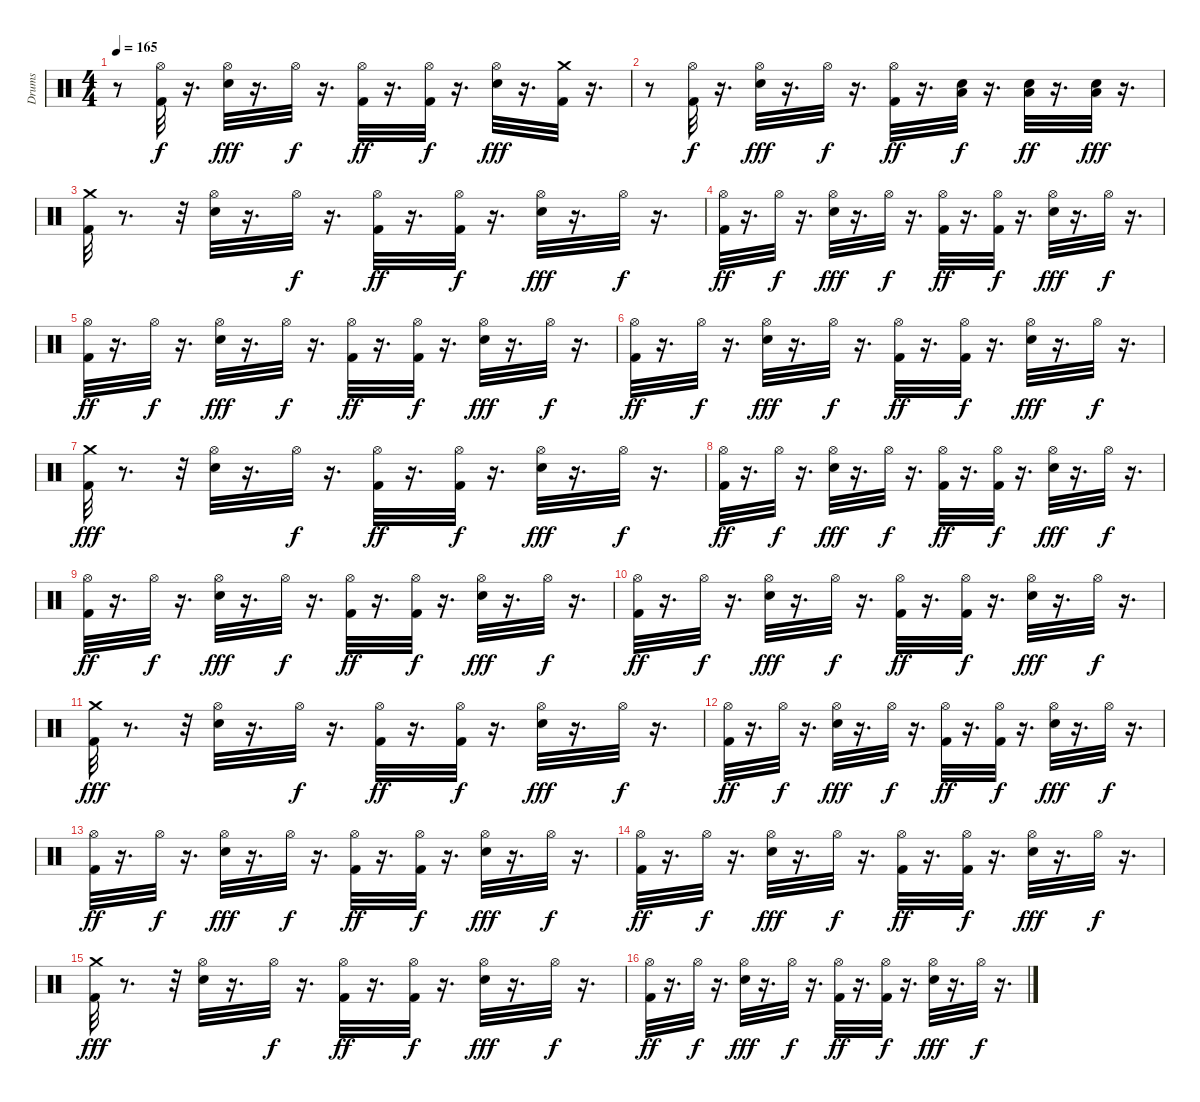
\track ("Drums" "Drums") {instrument percussion}
\staff {score}
\articulation defaults
\ts (4 4)
\tempo 165
\clef neutral
\ks c
r.8{dy fff} ("Kick (hit) 2" "Hi-Hat (open)").32{dy f} r.16{d} ("Snare (hit) 2" "Hi-Hat (open)").32{dy fff} r.16{d} "Hi-Hat (open)".32{dy f} r.16{d} ("Kick (hit) 2" "Hi-Hat (open)").32{dy ff} r.16{d} ("Kick (hit) 2" "Hi-Hat (open)").32{dy f} r.16{d} ("Snare (hit) 2" "Hi-Hat (open)").32{dy fff} r.16{d} ("Kick (hit) 2" "Crash medium (hit)").32 r.16{d} |
r.8 ("Kick (hit) 2" "Hi-Hat (open)").32{dy f} r.16{d} ("Snare (hit) 2" "Hi-Hat (open)").32{dy fff} r.16{d} "Hi-Hat (open)".32{dy f} r.16{d} ("Kick (hit) 2" "Hi-Hat (open)").32{dy ff} r.16{d} ("Low Floor Tom (hit)" "Snare (hit) 2").32{dy f} r.16{d} ("Low Floor Tom (hit)" "Snare (hit) 2").32{dy ff} r.16{d} ("Low Floor Tom (hit)" "Snare (hit) 2").32{dy fff} r.16{d} |
("Kick (hit) 2" "Crash medium (hit)").32 r.8{d} r.32 ("Snare (hit) 2" "Hi-Hat (open)").32 r.16{d} "Hi-Hat (open)".32{dy f} r.16{d} ("Kick (hit) 2" "Hi-Hat (open)").32{dy ff} r.16{d} ("Kick (hit) 2" "Hi-Hat (open)").32{dy f} r.16{d} ("Snare (hit) 2" "Hi-Hat (open)").32{dy fff} r.16{d} "Hi-Hat (open)".32{dy f} r.16{d} |
("Kick (hit) 2" "Hi-Hat (open)").32{dy ff} r.16{d} "Hi-Hat (open)".32{dy f} r.16{d} ("Snare (hit) 2" "Hi-Hat (open)").32{dy fff} r.16{d} "Hi-Hat (open)".32{dy f} r.16{d} ("Kick (hit) 2" "Hi-Hat (open)").32{dy ff} r.16{d} ("Kick (hit) 2" "Hi-Hat (open)").32{dy f} r.16{d} ("Snare (hit) 2" "Hi-Hat (open)").32{dy fff} r.16{d} "Hi-Hat (open)".32{dy f} r.16{d} |
("Kick (hit) 2" "Hi-Hat (open)").32{dy ff} r.16{d} "Hi-Hat (open)".32{dy f} r.16{d} ("Snare (hit) 2" "Hi-Hat (open)").32{dy fff} r.16{d} "Hi-Hat (open)".32{dy f} r.16{d} ("Kick (hit) 2" "Hi-Hat (open)").32{dy ff} r.16{d} ("Kick (hit) 2" "Hi-Hat (open)").32{dy f} r.16{d} ("Snare (hit) 2" "Hi-Hat (open)").32{dy fff} r.16{d} "Hi-Hat (open)".32{dy f} r.16{d} |
("Kick (hit) 2" "Hi-Hat (open)").32{dy ff} r.16{d} "Hi-Hat (open)".32{dy f} r.16{d} ("Snare (hit) 2" "Hi-Hat (open)").32{dy fff} r.16{d} "Hi-Hat (open)".32{dy f} r.16{d} ("Kick (hit) 2" "Hi-Hat (open)").32{dy ff} r.16{d} ("Kick (hit) 2" "Hi-Hat (open)").32{dy f} r.16{d} ("Snare (hit) 2" "Hi-Hat (open)").32{dy fff} r.16{d} "Hi-Hat (open)".32{dy f} r.16{d} |
("Kick (hit) 2" "Crash medium (hit)").32{dy fff} r.8{d} r.32 ("Snare (hit) 2" "Hi-Hat (open)").32 r.16{d} "Hi-Hat (open)".32{dy f} r.16{d} ("Kick (hit) 2" "Hi-Hat (open)").32{dy ff} r.16{d} ("Kick (hit) 2" "Hi-Hat (open)").32{dy f} r.16{d} ("Snare (hit) 2" "Hi-Hat (open)").32{dy fff} r.16{d} "Hi-Hat (open)".32{dy f} r.16{d} |
("Kick (hit) 2" "Hi-Hat (open)").32{dy ff} r.16{d} "Hi-Hat (open)".32{dy f} r.16{d} ("Snare (hit) 2" "Hi-Hat (open)").32{dy fff} r.16{d} "Hi-Hat (open)".32{dy f} r.16{d} ("Kick (hit) 2" "Hi-Hat (open)").32{dy ff} r.16{d} ("Kick (hit) 2" "Hi-Hat (open)").32{dy f} r.16{d} ("Snare (hit) 2" "Hi-Hat (open)").32{dy fff} r.16{d} "Hi-Hat (open)".32{dy f} r.16{d} |
("Kick (hit) 2" "Hi-Hat (open)").32{dy ff} r.16{d} "Hi-Hat (open)".32{dy f} r.16{d} ("Snare (hit) 2" "Hi-Hat (open)").32{dy fff} r.16{d} "Hi-Hat (open)".32{dy f} r.16{d} ("Kick (hit) 2" "Hi-Hat (open)").32{dy ff} r.16{d} ("Kick (hit) 2" "Hi-Hat (open)").32{dy f} r.16{d} ("Snare (hit) 2" "Hi-Hat (open)").32{dy fff} r.16{d} "Hi-Hat (open)".32{dy f} r.16{d} |
("Kick (hit) 2" "Hi-Hat (open)").32{dy ff} r.16{d} "Hi-Hat (open)".32{dy f} r.16{d} ("Snare (hit) 2" "Hi-Hat (open)").32{dy fff} r.16{d} "Hi-Hat (open)".32{dy f} r.16{d} ("Kick (hit) 2" "Hi-Hat (open)").32{dy ff} r.16{d} ("Kick (hit) 2" "Hi-Hat (open)").32{dy f} r.16{d} ("Snare (hit) 2" "Hi-Hat (open)").32{dy fff} r.16{d} "Hi-Hat (open)".32{dy f} r.16{d} |
("Kick (hit) 2" "Crash medium (hit)").32{dy fff} r.8{d} r.32 ("Snare (hit) 2" "Hi-Hat (open)").32 r.16{d} "Hi-Hat (open)".32{dy f} r.16{d} ("Kick (hit) 2" "Hi-Hat (open)").32{dy ff} r.16{d} ("Kick (hit) 2" "Hi-Hat (open)").32{dy f} r.16{d} ("Snare (hit) 2" "Hi-Hat (open)").32{dy fff} r.16{d} "Hi-Hat (open)".32{dy f} r.16{d} |
("Kick (hit) 2" "Hi-Hat (open)").32{dy ff} r.16{d} "Hi-Hat (open)".32{dy f} r.16{d} ("Snare (hit) 2" "Hi-Hat (open)").32{dy fff} r.16{d} "Hi-Hat (open)".32{dy f} r.16{d} ("Kick (hit) 2" "Hi-Hat (open)").32{dy ff} r.16{d} ("Kick (hit) 2" "Hi-Hat (open)").32{dy f} r.16{d} ("Snare (hit) 2" "Hi-Hat (open)").32{dy fff} r.16{d} "Hi-Hat (open)".32{dy f} r.16{d} |
("Kick (hit) 2" "Hi-Hat (open)").32{dy ff} r.16{d} "Hi-Hat (open)".32{dy f} r.16{d} ("Snare (hit) 2" "Hi-Hat (open)").32{dy fff} r.16{d} "Hi-Hat (open)".32{dy f} r.16{d} ("Kick (hit) 2" "Hi-Hat (open)").32{dy ff} r.16{d} ("Kick (hit) 2" "Hi-Hat (open)").32{dy f} r.16{d} ("Snare (hit) 2" "Hi-Hat (open)").32{dy fff} r.16{d} "Hi-Hat (open)".32{dy f} r.16{d} |
("Kick (hit) 2" "Hi-Hat (open)").32{dy ff} r.16{d} "Hi-Hat (open)".32{dy f} r.16{d} ("Snare (hit) 2" "Hi-Hat (open)").32{dy fff} r.16{d} "Hi-Hat (open)".32{dy f} r.16{d} ("Kick (hit) 2" "Hi-Hat (open)").32{dy ff} r.16{d} ("Kick (hit) 2" "Hi-Hat (open)").32{dy f} r.16{d} ("Snare (hit) 2" "Hi-Hat (open)").32{dy fff} r.16{d} "Hi-Hat (open)".32{dy f} r.16{d} |
("Kick (hit) 2" "Crash medium (hit)").32{dy fff} r.8{d} r.32 ("Snare (hit) 2" "Hi-Hat (open)").32 r.16{d} "Hi-Hat (open)".32{dy f} r.16{d} ("Kick (hit) 2" "Hi-Hat (open)").32{dy ff} r.16{d} ("Kick (hit) 2" "Hi-Hat (open)").32{dy f} r.16{d} ("Snare (hit) 2" "Hi-Hat (open)").32{dy fff} r.16{d} "Hi-Hat (open)".32{dy f} r.16{d} |
("Kick (hit) 2" "Hi-Hat (open)").32{dy ff} r.16{d} "Hi-Hat (open)".32{dy f} r.16{d} ("Snare (hit) 2" "Hi-Hat (open)").32{dy fff} r.16{d} "Hi-Hat (open)".32{dy f} r.16{d} ("Kick (hit) 2" "Hi-Hat (open)").32{dy ff} r.16{d} ("Kick (hit) 2" "Hi-Hat (open)").32{dy f} r.16{d} ("Snare (hit) 2" "Hi-Hat (open)").32{dy fff} r.16{d} "Hi-Hat (open)".32{dy f} r.16{d}
